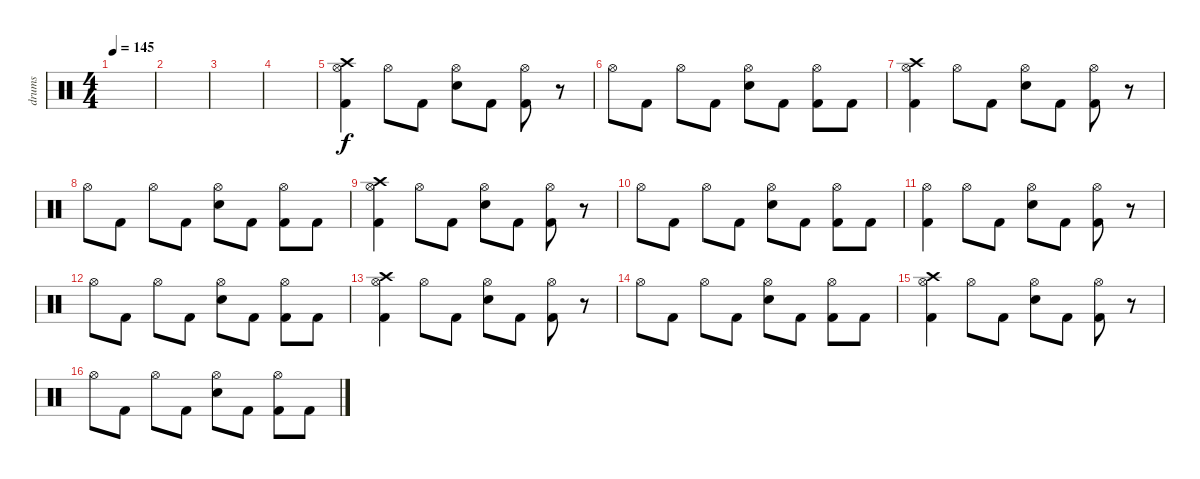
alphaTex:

\track ("drums" "drums") {instrument percussion}
\staff {score}
\articulation defaults
\ts (4 4)
\tempo 145
\clef neutral
\ks c
|
|
|
|
("Kick (hit) 2" "Hi-Hat (open)" "Crash high (hit)").4 "Hi-Hat (open)".8 "Kick (hit) 2".8 ("Snare (hit) 2" "Hi-Hat (open)").8 "Kick (hit) 2".8 ("Kick (hit) 2" "Hi-Hat (open)").8 r.8 |
"Hi-Hat (open)".8 "Kick (hit) 2".8 "Hi-Hat (open)".8 "Kick (hit) 2".8 ("Snare (hit) 2" "Hi-Hat (open)").8 "Kick (hit) 2".8 ("Kick (hit) 2" "Hi-Hat (open)").8 "Kick (hit) 2".8 |
("Kick (hit) 2" "Hi-Hat (open)" "Crash high (hit)").4 "Hi-Hat (open)".8 "Kick (hit) 2".8 ("Snare (hit) 2" "Hi-Hat (open)").8 "Kick (hit) 2".8 ("Kick (hit) 2" "Hi-Hat (open)").8 r.8 |
"Hi-Hat (open)".8 "Kick (hit) 2".8 "Hi-Hat (open)".8 "Kick (hit) 2".8 ("Snare (hit) 2" "Hi-Hat (open)").8 "Kick (hit) 2".8 ("Kick (hit) 2" "Hi-Hat (open)").8 "Kick (hit) 2".8 |
("Kick (hit) 2" "Hi-Hat (open)" "Crash high (hit)").4 "Hi-Hat (open)".8 "Kick (hit) 2".8 ("Snare (hit) 2" "Hi-Hat (open)").8 "Kick (hit) 2".8 ("Kick (hit) 2" "Hi-Hat (open)").8 r.8 |
"Hi-Hat (open)".8 "Kick (hit) 2".8 "Hi-Hat (open)".8 "Kick (hit) 2".8 ("Snare (hit) 2" "Hi-Hat (open)").8 "Kick (hit) 2".8 ("Kick (hit) 2" "Hi-Hat (open)").8 "Kick (hit) 2".8 |
("Kick (hit) 2" "Hi-Hat (open)").4 "Hi-Hat (open)".8 "Kick (hit) 2".8 ("Snare (hit) 2" "Hi-Hat (open)").8 "Kick (hit) 2".8 ("Kick (hit) 2" "Hi-Hat (open)").8 r.8 |
"Hi-Hat (open)".8 "Kick (hit) 2".8 "Hi-Hat (open)".8 "Kick (hit) 2".8 ("Snare (hit) 2" "Hi-Hat (open)").8 "Kick (hit) 2".8 ("Kick (hit) 2" "Hi-Hat (open)").8 "Kick (hit) 2".8 |
("Kick (hit) 2" "Hi-Hat (open)" "Crash high (hit)").4 "Hi-Hat (open)".8 "Kick (hit) 2".8 ("Snare (hit) 2" "Hi-Hat (open)").8 "Kick (hit) 2".8 ("Kick (hit) 2" "Hi-Hat (open)").8 r.8 |
"Hi-Hat (open)".8 "Kick (hit) 2".8 "Hi-Hat (open)".8 "Kick (hit) 2".8 ("Snare (hit) 2" "Hi-Hat (open)").8 "Kick (hit) 2".8 ("Kick (hit) 2" "Hi-Hat (open)").8 "Kick (hit) 2".8 |
("Kick (hit) 2" "Hi-Hat (open)" "Crash high (hit)").4 "Hi-Hat (open)".8 "Kick (hit) 2".8 ("Snare (hit) 2" "Hi-Hat (open)").8 "Kick (hit) 2".8 ("Kick (hit) 2" "Hi-Hat (open)").8 r.8 |
"Hi-Hat (open)".8 "Kick (hit) 2".8 "Hi-Hat (open)".8 "Kick (hit) 2".8 ("Snare (hit) 2" "Hi-Hat (open)").8 "Kick (hit) 2".8 ("Kick (hit) 2" "Hi-Hat (open)").8 "Kick (hit) 2".8
